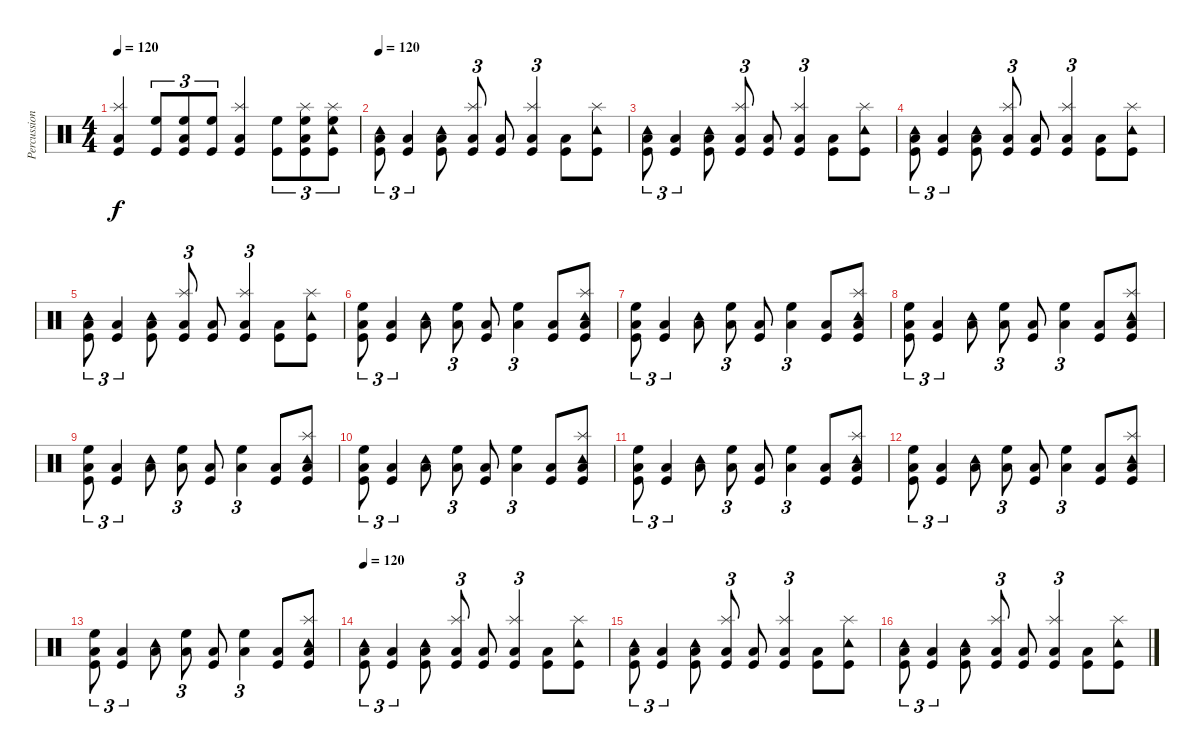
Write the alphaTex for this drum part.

\track ("Percussion" "Percussion") {instrument percussion}
\staff {score}
\articulation defaults
\ts (4 4)
\tempo 120
\clef neutral
\ks c
("Low Tom (hit)" "Splash (hit)" "Kick (hit)").4{dy f} ("High Floor Tom (hit)" "Kick (hit)").8{tu (3 2)} ("Low Tom (hit)" "High Floor Tom (hit)" "Kick (hit)").8{tu (3 2)} ("High Floor Tom (hit)" "Kick (hit)").8{tu (3 2)} ("Splash (hit)" "Low Tom (hit)" "Kick (hit)").4 ("High Floor Tom (hit)" "Kick (hit)").8{tu (3 2)} ("Splash (hit)" "Low Tom (hit)" "High Floor Tom (hit)" "Kick (hit)").8{tu (3 2)} ("Tambourine (hit)" "High Floor Tom (hit)" "Splash (hit)" "Kick (hit)").8{tu (3 2)} |
\tempo 120
("Tambourine (hit)" "Low Tom (hit)" "Kick (hit)").8{tu (3 2)} ("Low Tom (hit)" "Kick (hit)").4{tu (3 2)} ("Low Tom (hit)" "Tambourine (hit)" "Kick (hit)").8 ("Low Tom (hit)" "Splash (hit)" "Kick (hit)").8{tu (3 2)} ("Low Tom (hit)" "Kick (hit)").8 ("Splash (hit)" "Low Tom (hit)" "Kick (hit)").4{tu (3 2)} ("Low Tom (hit)" "Kick (hit)").8 ("Splash (hit)" "Tambourine (hit)" "Kick (hit)").8 |
("Tambourine (hit)" "Low Tom (hit)" "Kick (hit)").8{tu (3 2)} ("Low Tom (hit)" "Kick (hit)").4{tu (3 2)} ("Low Tom (hit)" "Tambourine (hit)" "Kick (hit)").8 ("Low Tom (hit)" "Splash (hit)" "Kick (hit)").8{tu (3 2)} ("Low Tom (hit)" "Kick (hit)").8 ("Splash (hit)" "Low Tom (hit)" "Kick (hit)").4{tu (3 2)} ("Low Tom (hit)" "Kick (hit)").8 ("Splash (hit)" "Tambourine (hit)" "Kick (hit)").8 |
("Tambourine (hit)" "Low Tom (hit)" "Kick (hit)").8{tu (3 2)} ("Low Tom (hit)" "Kick (hit)").4{tu (3 2)} ("Low Tom (hit)" "Tambourine (hit)" "Kick (hit)").8 ("Low Tom (hit)" "Splash (hit)" "Kick (hit)").8{tu (3 2)} ("Low Tom (hit)" "Kick (hit)").8 ("Splash (hit)" "Low Tom (hit)" "Kick (hit)").4{tu (3 2)} ("Low Tom (hit)" "Kick (hit)").8 ("Splash (hit)" "Tambourine (hit)" "Kick (hit)").8 |
("Tambourine (hit)" "Low Tom (hit)" "Kick (hit)").8{tu (3 2)} ("Low Tom (hit)" "Kick (hit)").4{tu (3 2)} ("Low Tom (hit)" "Tambourine (hit)" "Kick (hit)").8 ("Low Tom (hit)" "Splash (hit)" "Kick (hit)").8{tu (3 2)} ("Low Tom (hit)" "Kick (hit)").8 ("Splash (hit)" "Low Tom (hit)" "Kick (hit)").4{tu (3 2)} ("Low Tom (hit)" "Kick (hit)").8 ("Splash (hit)" "Tambourine (hit)" "Kick (hit)").8 |
("High Floor Tom (hit)" "Low Tom (hit)" "Kick (hit)").8{tu (3 2)} ("Low Tom (hit)" "Kick (hit)").4{tu (3 2)} ("Low Tom (hit)" "Tambourine (hit)").8 ("Low Tom (hit)" "High Floor Tom (hit)").8{tu (3 2)} ("Low Tom (hit)" "Kick (hit)").8 ("High Floor Tom (hit)" "Low Tom (hit)").4{tu (3 2)} ("Low Tom (hit)" "Kick (hit)").8 ("Low Tom (hit)" "Splash (hit)" "Tambourine (hit)" "Kick (hit)").8 |
("High Floor Tom (hit)" "Low Tom (hit)" "Kick (hit)").8{tu (3 2)} ("Low Tom (hit)" "Kick (hit)").4{tu (3 2)} ("Low Tom (hit)" "Tambourine (hit)").8 ("Low Tom (hit)" "High Floor Tom (hit)").8{tu (3 2)} ("Low Tom (hit)" "Kick (hit)").8 ("High Floor Tom (hit)" "Low Tom (hit)").4{tu (3 2)} ("Low Tom (hit)" "Kick (hit)").8 ("Low Tom (hit)" "Splash (hit)" "Tambourine (hit)" "Kick (hit)").8 |
("High Floor Tom (hit)" "Low Tom (hit)" "Kick (hit)").8{tu (3 2)} ("Low Tom (hit)" "Kick (hit)").4{tu (3 2)} ("Low Tom (hit)" "Tambourine (hit)").8 ("Low Tom (hit)" "High Floor Tom (hit)").8{tu (3 2)} ("Low Tom (hit)" "Kick (hit)").8 ("High Floor Tom (hit)" "Low Tom (hit)").4{tu (3 2)} ("Low Tom (hit)" "Kick (hit)").8 ("Low Tom (hit)" "Splash (hit)" "Tambourine (hit)" "Kick (hit)").8 |
("High Floor Tom (hit)" "Low Tom (hit)" "Kick (hit)").8{tu (3 2)} ("Low Tom (hit)" "Kick (hit)").4{tu (3 2)} ("Low Tom (hit)" "Tambourine (hit)").8 ("Low Tom (hit)" "High Floor Tom (hit)").8{tu (3 2)} ("Low Tom (hit)" "Kick (hit)").8 ("High Floor Tom (hit)" "Low Tom (hit)").4{tu (3 2)} ("Low Tom (hit)" "Kick (hit)").8 ("Low Tom (hit)" "Splash (hit)" "Tambourine (hit)" "Kick (hit)").8 |
("High Floor Tom (hit)" "Low Tom (hit)" "Kick (hit)").8{tu (3 2)} ("Low Tom (hit)" "Kick (hit)").4{tu (3 2)} ("Low Tom (hit)" "Tambourine (hit)").8 ("Low Tom (hit)" "High Floor Tom (hit)").8{tu (3 2)} ("Low Tom (hit)" "Kick (hit)").8 ("High Floor Tom (hit)" "Low Tom (hit)").4{tu (3 2)} ("Low Tom (hit)" "Kick (hit)").8 ("Low Tom (hit)" "Splash (hit)" "Tambourine (hit)" "Kick (hit)").8 |
("High Floor Tom (hit)" "Low Tom (hit)" "Kick (hit)").8{tu (3 2)} ("Low Tom (hit)" "Kick (hit)").4{tu (3 2)} ("Low Tom (hit)" "Tambourine (hit)").8 ("Low Tom (hit)" "High Floor Tom (hit)").8{tu (3 2)} ("Low Tom (hit)" "Kick (hit)").8 ("High Floor Tom (hit)" "Low Tom (hit)").4{tu (3 2)} ("Low Tom (hit)" "Kick (hit)").8 ("Low Tom (hit)" "Splash (hit)" "Tambourine (hit)" "Kick (hit)").8 |
("High Floor Tom (hit)" "Low Tom (hit)" "Kick (hit)").8{tu (3 2)} ("Low Tom (hit)" "Kick (hit)").4{tu (3 2)} ("Low Tom (hit)" "Tambourine (hit)").8 ("Low Tom (hit)" "High Floor Tom (hit)").8{tu (3 2)} ("Low Tom (hit)" "Kick (hit)").8 ("High Floor Tom (hit)" "Low Tom (hit)").4{tu (3 2)} ("Low Tom (hit)" "Kick (hit)").8 ("Low Tom (hit)" "Splash (hit)" "Tambourine (hit)" "Kick (hit)").8 |
("High Floor Tom (hit)" "Low Tom (hit)" "Kick (hit)").8{tu (3 2)} ("Low Tom (hit)" "Kick (hit)").4{tu (3 2)} ("Low Tom (hit)" "Tambourine (hit)").8 ("Low Tom (hit)" "High Floor Tom (hit)").8{tu (3 2)} ("Low Tom (hit)" "Kick (hit)").8 ("High Floor Tom (hit)" "Low Tom (hit)").4{tu (3 2)} ("Low Tom (hit)" "Kick (hit)").8 ("Low Tom (hit)" "Splash (hit)" "Tambourine (hit)" "Kick (hit)").8 |
\tempo 120
("Tambourine (hit)" "Low Tom (hit)" "Kick (hit)").8{tu (3 2)} ("Low Tom (hit)" "Kick (hit)").4{tu (3 2)} ("Low Tom (hit)" "Tambourine (hit)" "Kick (hit)").8 ("Low Tom (hit)" "Splash (hit)" "Kick (hit)").8{tu (3 2)} ("Low Tom (hit)" "Kick (hit)").8 ("Splash (hit)" "Low Tom (hit)" "Kick (hit)").4{tu (3 2)} ("Low Tom (hit)" "Kick (hit)").8 ("Splash (hit)" "Tambourine (hit)" "Kick (hit)").8 |
("Tambourine (hit)" "Low Tom (hit)" "Kick (hit)").8{tu (3 2)} ("Low Tom (hit)" "Kick (hit)").4{tu (3 2)} ("Low Tom (hit)" "Tambourine (hit)" "Kick (hit)").8 ("Low Tom (hit)" "Splash (hit)" "Kick (hit)").8{tu (3 2)} ("Low Tom (hit)" "Kick (hit)").8 ("Splash (hit)" "Low Tom (hit)" "Kick (hit)").4{tu (3 2)} ("Low Tom (hit)" "Kick (hit)").8 ("Splash (hit)" "Tambourine (hit)" "Kick (hit)").8 |
("Tambourine (hit)" "Low Tom (hit)" "Kick (hit)").8{tu (3 2)} ("Low Tom (hit)" "Kick (hit)").4{tu (3 2)} ("Low Tom (hit)" "Tambourine (hit)" "Kick (hit)").8 ("Low Tom (hit)" "Splash (hit)" "Kick (hit)").8{tu (3 2)} ("Low Tom (hit)" "Kick (hit)").8 ("Splash (hit)" "Low Tom (hit)" "Kick (hit)").4{tu (3 2)} ("Low Tom (hit)" "Kick (hit)").8 ("Splash (hit)" "Tambourine (hit)" "Kick (hit)").8
